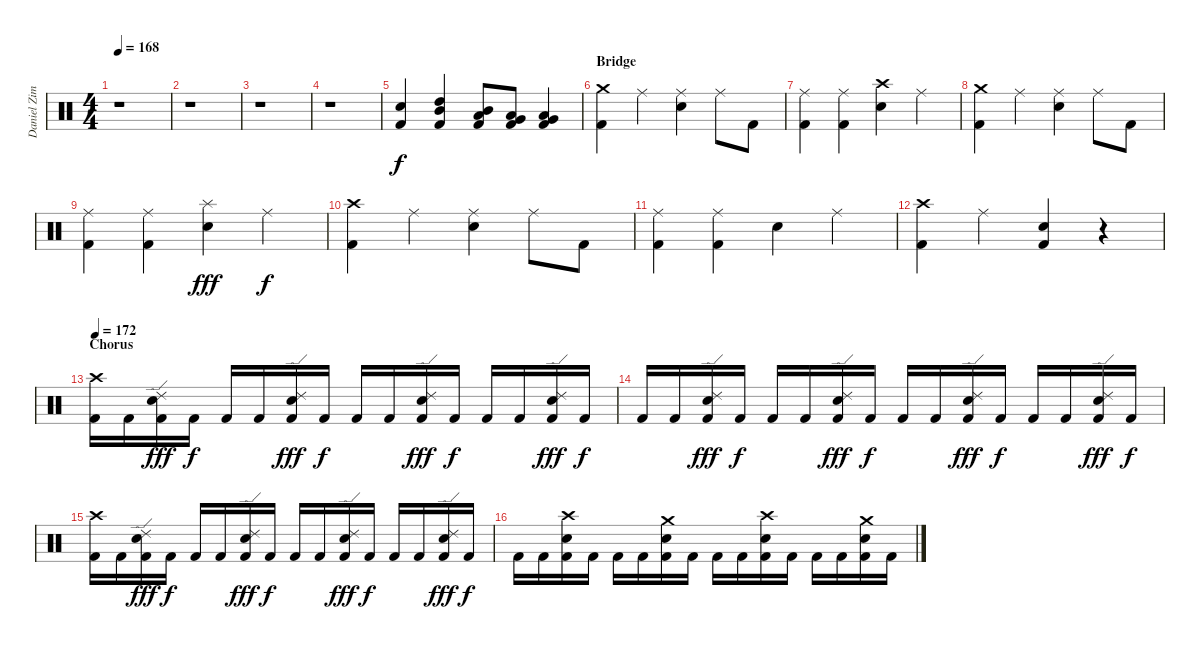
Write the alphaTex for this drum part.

\track ("Daniel Zimmermann - Drums" "Daniel Zim") {instrument percussion}
\staff {score}
\articulation defaults
\ts (4 4)
\tempo 168
\clef neutral
\ks c
r.1{dy f} |
r.1 |
r.1 |
r.1 |
("Kick (hit) 2" "Electric Snare (hit)").4 ("Kick (hit) 2" "High Tom (hit)" "Mid Tom (hit)").4 ("Kick (hit) 2" "Mid Tom (hit)" "Low Tom (hit)").8 ("Kick (hit) 2" "Low Tom (hit)" "Very Low Tom (hit)").8 ("Kick (hit) 2" "Very Low Tom (hit)" "Low Floor Tom (hit)").4 |
\section ("" "Bridge")
("Kick (hit) 2" "Crash medium (hit)").4 "Ride (middle)".4 ("Electric Snare (hit)" "Ride (middle)").4 "Ride (middle)".8 "Kick (hit) 2".8 |
("Kick (hit) 2" "Ride (middle)").4 ("Kick (hit) 2" "Ride (middle)").4 ("Electric Snare (hit)" "Crash high (hit)").4 "Ride (middle)".4 |
("Kick (hit) 2" "Crash medium (hit)").4 "Ride (middle)".4 ("Electric Snare (hit)" "Ride (middle)").4 "Ride (middle)".8 "Kick (hit) 2".8 |
("Kick (hit) 2" "Ride (middle)").4 ("Kick (hit) 2" "Ride (middle)").4 ("Electric Snare (hit)" "Splash (hit)").4{dy fff} "Ride (middle)".4{dy f} |
("Kick (hit) 2" "Crash high (hit)").4 "Ride (middle)".4 ("Electric Snare (hit)" "Ride (middle)").4 "Ride (middle)".8 "Kick (hit) 2".8 |
("Kick (hit) 2" "Ride (middle)").4 ("Kick (hit) 2" "Ride (middle)").4 "Electric Snare (hit)".4 "Ride (middle)".4 |
("Kick (hit) 2" "Crash high (hit)").4 "Ride (middle)".4 ("Kick (hit) 2" "Electric Snare (hit)").4 r.4 |
\section ("" "Chorus")
\tempo 172
("Kick (hit) 2" "Crash high (hit)").16 "Kick (hit) 2".16 ("Kick (hit) 2" "Electric Snare (hit)" "Ride (edge) 2").16{dy fff} "Kick (hit) 2".16{dy f} "Kick (hit) 2".16 "Kick (hit) 2".16 ("Kick (hit) 2" "Electric Snare (hit)" "Ride (edge) 2").16{dy fff} "Kick (hit) 2".16{dy f} "Kick (hit) 2".16 "Kick (hit) 2".16 ("Kick (hit) 2" "Electric Snare (hit)" "Ride (edge) 2").16{dy fff} "Kick (hit) 2".16{dy f} "Kick (hit) 2".16 "Kick (hit) 2".16 ("Kick (hit) 2" "Electric Snare (hit)" "Ride (edge) 2").16{dy fff} "Kick (hit) 2".16{dy f} |
"Kick (hit) 2".16 "Kick (hit) 2".16 ("Kick (hit) 2" "Electric Snare (hit)" "Ride (edge) 2").16{dy fff} "Kick (hit) 2".16{dy f} "Kick (hit) 2".16 "Kick (hit) 2".16 ("Kick (hit) 2" "Electric Snare (hit)" "Ride (edge) 2").16{dy fff} "Kick (hit) 2".16{dy f} "Kick (hit) 2".16 "Kick (hit) 2".16 ("Kick (hit) 2" "Electric Snare (hit)" "Ride (edge) 2").16{dy fff} "Kick (hit) 2".16{dy f} "Kick (hit) 2".16 "Kick (hit) 2".16 ("Kick (hit) 2" "Electric Snare (hit)" "Ride (edge) 2").16{dy fff} "Kick (hit) 2".16{dy f} |
("Kick (hit) 2" "Crash high (hit)").16 "Kick (hit) 2".16 ("Kick (hit) 2" "Electric Snare (hit)" "Ride (edge) 2").16{dy fff} "Kick (hit) 2".16{dy f} "Kick (hit) 2".16 "Kick (hit) 2".16 ("Kick (hit) 2" "Electric Snare (hit)" "Ride (edge) 2").16{dy fff} "Kick (hit) 2".16{dy f} "Kick (hit) 2".16 "Kick (hit) 2".16 ("Kick (hit) 2" "Electric Snare (hit)" "Ride (edge) 2").16{dy fff} "Kick (hit) 2".16{dy f} "Kick (hit) 2".16 "Kick (hit) 2".16 ("Kick (hit) 2" "Electric Snare (hit)" "Ride (edge) 2").16{dy fff} "Kick (hit) 2".16{dy f} |
"Kick (hit) 2".16 "Kick (hit) 2".16 ("Kick (hit) 2" "Electric Snare (hit)" "Crash high (hit)").16 "Kick (hit) 2".16 "Kick (hit) 2".16 "Kick (hit) 2".16 ("Kick (hit) 2" "Electric Snare (hit)" "Crash medium (hit)").16 "Kick (hit) 2".16 "Kick (hit) 2".16 "Kick (hit) 2".16 ("Kick (hit) 2" "Electric Snare (hit)" "Crash high (hit)").16 "Kick (hit) 2".16 "Kick (hit) 2".16 "Kick (hit) 2".16 ("Kick (hit) 2" "Electric Snare (hit)" "Crash medium (hit)").16 "Kick (hit) 2".16
